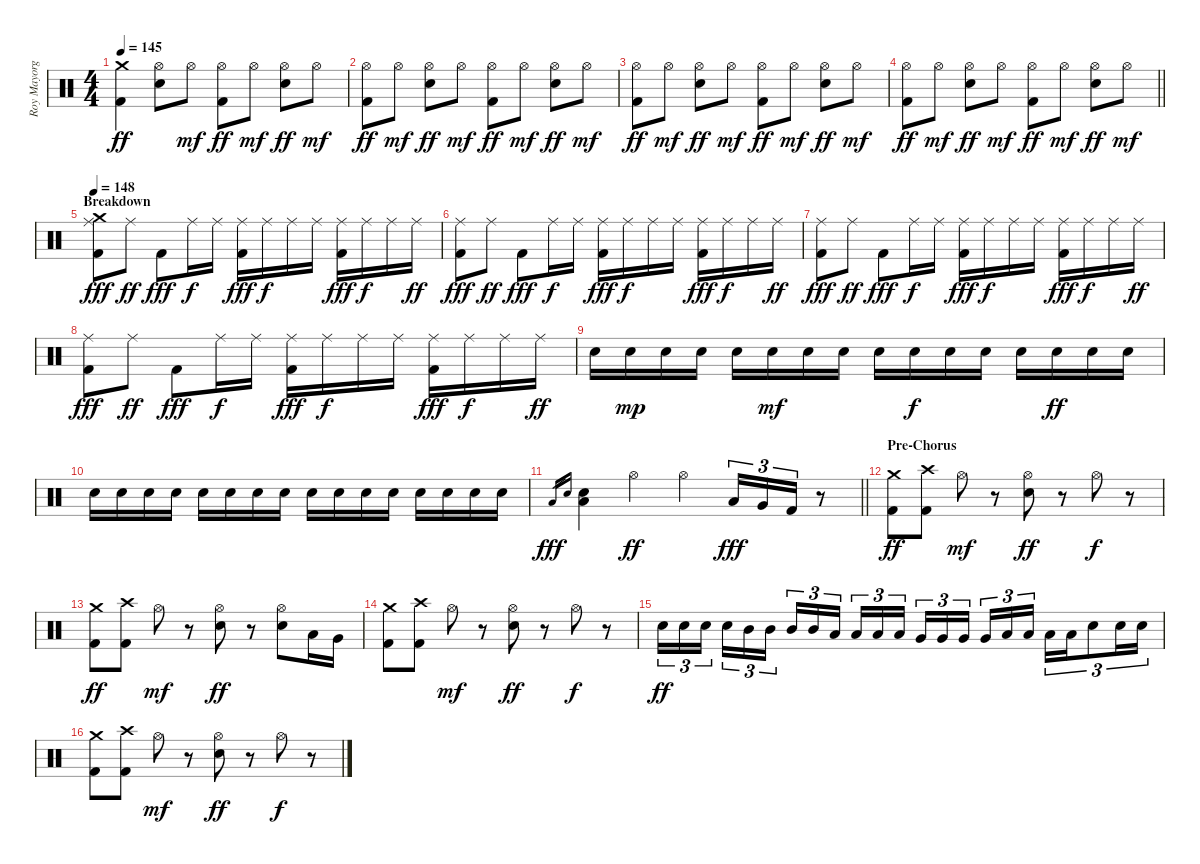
\track ("Roy Mayorga (Drums)" "Roy Mayorg") {instrument percussion}
\staff {score}
\articulation defaults
\ts (4 4)
\tempo 145
\clef neutral
\ks c
("Crash medium (hit)" "Kick (hit) 2").4{dy ff} ("Hi-Hat (open)" "Electric Snare (hit)").8 "Hi-Hat (open)".8{dy mf} ("Hi-Hat (open)" "Kick (hit) 2").8{dy ff} "Hi-Hat (open)".8{dy mf} ("Hi-Hat (open)" "Electric Snare (hit)").8{dy ff} "Hi-Hat (open)".8{dy mf} |
("Hi-Hat (open)" "Kick (hit) 2").8{dy ff} "Hi-Hat (open)".8{dy mf} ("Hi-Hat (open)" "Electric Snare (hit)").8{dy ff} "Hi-Hat (open)".8{dy mf} ("Hi-Hat (open)" "Kick (hit) 2").8{dy ff} "Hi-Hat (open)".8{dy mf} ("Hi-Hat (open)" "Electric Snare (hit)").8{dy ff} "Hi-Hat (open)".8{dy mf} |
("Hi-Hat (open)" "Kick (hit) 2").8{dy ff} "Hi-Hat (open)".8{dy mf} ("Hi-Hat (open)" "Electric Snare (hit)").8{dy ff} "Hi-Hat (open)".8{dy mf} ("Hi-Hat (open)" "Kick (hit) 2").8{dy ff} "Hi-Hat (open)".8{dy mf} ("Hi-Hat (open)" "Electric Snare (hit)").8{dy ff} "Hi-Hat (open)".8{dy mf} |
\barLineRight lightlight
("Hi-Hat (open)" "Kick (hit) 2").8{dy ff} "Hi-Hat (open)".8{dy mf} ("Hi-Hat (open)" "Electric Snare (hit)").8{dy ff} "Hi-Hat (open)".8{dy mf} ("Hi-Hat (open)" "Kick (hit) 2").8{dy ff} "Hi-Hat (open)".8{dy mf} ("Hi-Hat (open)" "Electric Snare (hit)").8{dy ff} "Hi-Hat (open)".8{dy mf} |
\section ("" "Breakdown")
\tempo 148
("Crash medium (hit)" "Ride (middle)" "Kick (hit) 2").8{dy fff} "Ride (middle)".8{dy ff} "Kick (hit) 2".8{dy fff} "Ride (middle)".16{dy f} "Ride (middle)".16 ("Ride (middle)" "Kick (hit) 2").16{dy fff} "Ride (middle)".16{dy f} "Ride (middle)".16 "Ride (middle)".16 ("Ride (middle)" "Kick (hit) 2").16{dy fff} "Ride (middle)".16{dy f} "Ride (middle)".16 "Ride (middle)".16{dy ff} |
("Ride (middle)" "Kick (hit) 2").8{dy fff} "Ride (middle)".8{dy ff} "Kick (hit) 2".8{dy fff} "Ride (middle)".16{dy f} "Ride (middle)".16 ("Ride (middle)" "Kick (hit) 2").16{dy fff} "Ride (middle)".16{dy f} "Ride (middle)".16 "Ride (middle)".16 ("Ride (middle)" "Kick (hit) 2").16{dy fff} "Ride (middle)".16{dy f} "Ride (middle)".16 "Ride (middle)".16{dy ff} |
("Ride (middle)" "Kick (hit) 2").8{dy fff} "Ride (middle)".8{dy ff} "Kick (hit) 2".8{dy fff} "Ride (middle)".16{dy f} "Ride (middle)".16 ("Ride (middle)" "Kick (hit) 2").16{dy fff} "Ride (middle)".16{dy f} "Ride (middle)".16 "Ride (middle)".16 ("Ride (middle)" "Kick (hit) 2").16{dy fff} "Ride (middle)".16{dy f} "Ride (middle)".16 "Ride (middle)".16{dy ff} |
("Ride (middle)" "Kick (hit) 2").8{dy fff} "Ride (middle)".8{dy ff} "Kick (hit) 2".8{dy fff} "Ride (middle)".16{dy f} "Ride (middle)".16 ("Ride (middle)" "Kick (hit) 2").16{dy fff} "Ride (middle)".16{dy f} "Ride (middle)".16 "Ride (middle)".16 ("Ride (middle)" "Kick (hit) 2").16{dy fff} "Ride (middle)".16{dy f} "Ride (middle)".16 "Ride (middle)".16{dy ff} |
"Electric Snare (hit)".16 "Electric Snare (hit)".16{dy mp} "Electric Snare (hit)".16 "Electric Snare (hit)".16 "Electric Snare (hit)".16 "Electric Snare (hit)".16{dy mf} "Electric Snare (hit)".16 "Electric Snare (hit)".16 "Electric Snare (hit)".16 "Electric Snare (hit)".16{dy f} "Electric Snare (hit)".16 "Electric Snare (hit)".16 "Electric Snare (hit)".16 "Electric Snare (hit)".16{dy ff} "Electric Snare (hit)".16 "Electric Snare (hit)".16 |
"Electric Snare (hit)".16 "Electric Snare (hit)".16 "Electric Snare (hit)".16 "Electric Snare (hit)".16 "Electric Snare (hit)".16 "Electric Snare (hit)".16 "Electric Snare (hit)".16 "Electric Snare (hit)".16 "Electric Snare (hit)".16 "Electric Snare (hit)".16 "Electric Snare (hit)".16 "Electric Snare (hit)".16 "Electric Snare (hit)".16 "Electric Snare (hit)".16 "Electric Snare (hit)".16 "Electric Snare (hit)".16 |
\barLineRight lightlight "Low Tom (hit)".16{gr dy fff} "Electric Snare (hit)".16{gr}
("Low Tom (hit)" "Electric Snare (hit)").4 "Hi-Hat (open)".4{dy ff} "Hi-Hat (open)".4 "Low Tom (hit)".16{tu (3 2) dy fff} "Very Low Tom (hit)".16{tu (3 2)} "Kick (hit) 2".16{tu (3 2)} r.8 |
\section ("" "Pre-Chorus")
("Crash medium (hit)" "Kick (hit) 2").8{dy ff} ("Crash high (hit)" "Kick (hit) 2").8 "Hi-Hat (open)".8{dy mf} r.8 ("Hi-Hat (open)" "Electric Snare (hit)").8{dy ff} r.8 "Hi-Hat (open)".8{dy f} r.8 |
("Crash medium (hit)" "Kick (hit) 2").8{dy ff} ("Crash high (hit)" "Kick (hit) 2").8 "Hi-Hat (open)".8{dy mf} r.8 ("Hi-Hat (open)" "Electric Snare (hit)").8{dy ff} r.8 ("Hi-Hat (open)" "Electric Snare (hit)").8 "Low Tom (hit)".16 "Very Low Tom (hit)".16 |
("Crash medium (hit)" "Kick (hit) 2").8 ("Crash high (hit)" "Kick (hit) 2").8 "Hi-Hat (open)".8{dy mf} r.8 ("Hi-Hat (open)" "Electric Snare (hit)").8{dy ff} r.8 "Hi-Hat (open)".8{dy f} r.8 |
"Electric Snare (hit)".16{tu (3 2) dy ff} "Electric Snare (hit)".16{tu (3 2)} "Electric Snare (hit)".16{tu (3 2) beam splitsecondary} "Electric Snare (hit)".16{tu (3 2)} "Mid Tom (hit)".16{tu (3 2)} "Mid Tom (hit)".16{tu (3 2)} "Mid Tom (hit)".16{tu (3 2)} "Mid Tom (hit)".16{tu (3 2)} "Low Tom (hit)".16{tu (3 2) beam splitsecondary} "Low Tom (hit)".16{tu (3 2)} "Low Tom (hit)".16{tu (3 2)} "Low Tom (hit)".16{tu (3 2)} "Very Low Tom (hit)".16{tu (3 2)} "Very Low Tom (hit)".16{tu (3 2)} "Very Low Tom (hit)".16{tu (3 2) beam splitsecondary} "Very Low Tom (hit)".16{tu (3 2)} "Low Floor Tom (hit)".16{tu (3 2)} "Low Floor Tom (hit)".16{tu (3 2)} "Low Floor Tom (hit)".16{tu (3 2)} "Low Floor Tom (hit)".16{tu (3 2)} "Electric Snare (hit)".8{tu (3 2)} "Electric Snare (hit)".16{tu (3 2)} "Electric Snare (hit)".16{tu (3 2)} |
("Crash medium (hit)" "Kick (hit) 2").8 ("Crash high (hit)" "Kick (hit) 2").8 "Hi-Hat (open)".8{dy mf} r.8 ("Hi-Hat (open)" "Electric Snare (hit)").8{dy ff} r.8 "Hi-Hat (open)".8{dy f} r.8
